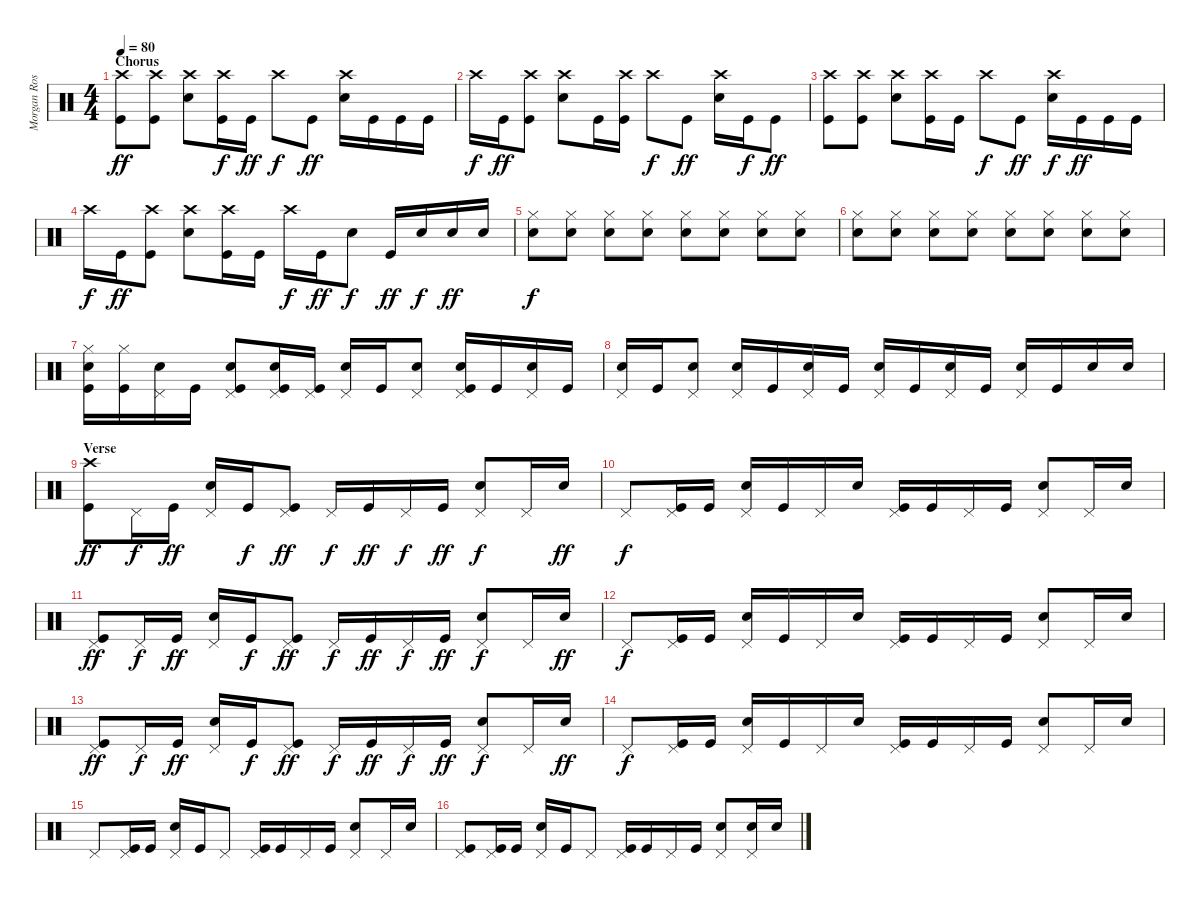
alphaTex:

\track ("Morgan Rose" "Morgan Ros") {instrument percussion}
\staff {score}
\articulation defaults
\ts (4 4)
\section ("" "Chorus")
\tempo 80
\clef neutral
\ks c
("Crash high (hit)" "Kick (hit)").8{dy ff} ("Crash high (hit)" "Kick (hit)").8 ("Crash high (hit)" "Snare (hit) 2").8 ("Crash high (hit)" "Kick (hit)").16{dy f} "Kick (hit)".16{dy ff} "Crash high (hit)".8{dy f} "Kick (hit)".8{dy ff} ("Crash high (hit)" "Snare (hit) 2").16 "Kick (hit)".16 "Kick (hit)".16 "Kick (hit)".16 |
"Crash high (hit)".16{dy f} "Kick (hit)".16{dy ff} ("Crash high (hit)" "Kick (hit)").8 ("Crash high (hit)" "Snare (hit) 2").8 "Kick (hit)".16 ("Crash high (hit)" "Kick (hit)").16 "Crash high (hit)".8{dy f} "Kick (hit)".8{dy ff} ("Crash high (hit)" "Snare (hit) 2").16 "Kick (hit)".16{dy f} "Kick (hit)".8{dy ff} |
("Crash high (hit)" "Kick (hit)").8 ("Crash high (hit)" "Kick (hit)").8 ("Crash high (hit)" "Snare (hit) 2").8 ("Crash high (hit)" "Kick (hit)").16 "Kick (hit)".16 "Crash high (hit)".8{dy f} "Kick (hit)".8{dy ff} ("Crash high (hit)" "Snare (hit) 2").16{dy f} "Kick (hit)".16{dy ff} "Kick (hit)".16 "Kick (hit)".16 |
"Crash high (hit)".16{dy f} "Kick (hit)".16{dy ff} ("Crash high (hit)" "Kick (hit)").8 ("Crash high (hit)" "Snare (hit) 2").8 ("Crash high (hit)" "Kick (hit)").16 "Kick (hit)".16 "Crash high (hit)".16{dy f} "Kick (hit)".16{dy ff} "Snare (hit) 2".8{dy f} "Kick (hit)".16{dy ff} "Snare (hit) 2".16{dy f} "Snare (hit) 2".16{dy ff} "Snare (hit) 2".16 |
("Hi-Hat (closed)" "Snare (hit) 2").8{dy f} ("Hi-Hat (closed)" "Snare (hit) 2").8 ("Hi-Hat (closed)" "Snare (hit) 2").8 ("Hi-Hat (closed)" "Snare (hit) 2").8 ("Hi-Hat (closed)" "Snare (hit) 2").8 ("Hi-Hat (closed)" "Snare (hit) 2").8 ("Hi-Hat (closed)" "Snare (hit) 2").8 ("Hi-Hat (closed)" "Snare (hit) 2").8 |
("Hi-Hat (closed)" "Snare (hit) 2").8 ("Hi-Hat (closed)" "Snare (hit) 2").8 ("Hi-Hat (closed)" "Snare (hit) 2").8 ("Hi-Hat (closed)" "Snare (hit) 2").8 ("Hi-Hat (closed)" "Snare (hit) 2").8 ("Hi-Hat (closed)" "Snare (hit) 2").8 ("Hi-Hat (closed)" "Snare (hit) 2").8 ("Hi-Hat (closed)" "Snare (hit) 2").8 |
("Hi-Hat (closed)" "Snare (hit) 2" "Kick (hit)").16 ("Hi-Hat (closed)" "Kick (hit)").16 ("Pedal Hi-Hat (hit)" "Snare (hit) 2").16 "Kick (hit)".16 ("Pedal Hi-Hat (hit)" "Snare (hit) 2" "Kick (hit)").8 ("Pedal Hi-Hat (hit)" "Snare (hit) 2" "Kick (hit)").16 ("Pedal Hi-Hat (hit)" "Kick (hit)").16 ("Pedal Hi-Hat (hit)" "Snare (hit) 2").16 "Kick (hit)".16 ("Pedal Hi-Hat (hit)" "Snare (hit) 2").8 ("Pedal Hi-Hat (hit)" "Snare (hit) 2" "Kick (hit)").16 "Kick (hit)".16 ("Pedal Hi-Hat (hit)" "Snare (hit) 2").16 "Kick (hit)".16 |
("Pedal Hi-Hat (hit)" "Snare (hit) 2").16 "Kick (hit)".16 ("Pedal Hi-Hat (hit)" "Snare (hit) 2").8 ("Pedal Hi-Hat (hit)" "Snare (hit) 2").16 "Kick (hit)".16 ("Pedal Hi-Hat (hit)" "Snare (hit) 2").16 "Kick (hit)".16 ("Pedal Hi-Hat (hit)" "Snare (hit) 2").16 "Kick (hit)".16 ("Pedal Hi-Hat (hit)" "Snare (hit) 2").16 "Kick (hit)".16 ("Pedal Hi-Hat (hit)" "Snare (hit) 2").16 "Kick (hit)".16 "Snare (hit) 2".16 "Snare (hit) 2".16 |
\section ("" "Verse")
("Crash high (hit)" "Kick (hit)").8{dy ff} "Pedal Hi-Hat (hit)".16{dy f} "Kick (hit)".16{dy ff} ("Pedal Hi-Hat (hit)" "Snare (hit) 2").16 "Kick (hit)".16{dy f} ("Pedal Hi-Hat (hit)" "Kick (hit)").8{dy ff} "Pedal Hi-Hat (hit)".16{dy f} "Kick (hit)".16{dy ff} "Pedal Hi-Hat (hit)".16{dy f} "Kick (hit)".16{dy ff} ("Pedal Hi-Hat (hit)" "Snare (hit) 2").8{dy f} "Pedal Hi-Hat (hit)".16 "Snare (hit) 2".16{dy ff} |
"Pedal Hi-Hat (hit)".8{dy f} ("Pedal Hi-Hat (hit)" "Kick (hit)").16 "Kick (hit)".16 ("Pedal Hi-Hat (hit)" "Snare (hit) 2").16 "Kick (hit)".16 "Pedal Hi-Hat (hit)".16 "Snare (hit) 2".16 ("Pedal Hi-Hat (hit)" "Kick (hit)").16 "Kick (hit)".16 "Pedal Hi-Hat (hit)".16 "Kick (hit)".16 ("Pedal Hi-Hat (hit)" "Snare (hit) 2").8 "Pedal Hi-Hat (hit)".16 "Snare (hit) 2".16 |
("Pedal Hi-Hat (hit)" "Kick (hit)").8{dy ff} "Pedal Hi-Hat (hit)".16{dy f} "Kick (hit)".16{dy ff} ("Pedal Hi-Hat (hit)" "Snare (hit) 2").16 "Kick (hit)".16{dy f} ("Pedal Hi-Hat (hit)" "Kick (hit)").8{dy ff} "Pedal Hi-Hat (hit)".16{dy f} "Kick (hit)".16{dy ff} "Pedal Hi-Hat (hit)".16{dy f} "Kick (hit)".16{dy ff} ("Pedal Hi-Hat (hit)" "Snare (hit) 2").8{dy f} "Pedal Hi-Hat (hit)".16 "Snare (hit) 2".16{dy ff} |
"Pedal Hi-Hat (hit)".8{dy f} ("Pedal Hi-Hat (hit)" "Kick (hit)").16 "Kick (hit)".16 ("Pedal Hi-Hat (hit)" "Snare (hit) 2").16 "Kick (hit)".16 "Pedal Hi-Hat (hit)".16 "Snare (hit) 2".16 ("Pedal Hi-Hat (hit)" "Kick (hit)").16 "Kick (hit)".16 "Pedal Hi-Hat (hit)".16 "Kick (hit)".16 ("Pedal Hi-Hat (hit)" "Snare (hit) 2").8 "Pedal Hi-Hat (hit)".16 "Snare (hit) 2".16 |
("Pedal Hi-Hat (hit)" "Kick (hit)").8{dy ff} "Pedal Hi-Hat (hit)".16{dy f} "Kick (hit)".16{dy ff} ("Pedal Hi-Hat (hit)" "Snare (hit) 2").16 "Kick (hit)".16{dy f} ("Pedal Hi-Hat (hit)" "Kick (hit)").8{dy ff} "Pedal Hi-Hat (hit)".16{dy f} "Kick (hit)".16{dy ff} "Pedal Hi-Hat (hit)".16{dy f} "Kick (hit)".16{dy ff} ("Pedal Hi-Hat (hit)" "Snare (hit) 2").8{dy f} "Pedal Hi-Hat (hit)".16 "Snare (hit) 2".16{dy ff} |
"Pedal Hi-Hat (hit)".8{dy f} ("Pedal Hi-Hat (hit)" "Kick (hit)").16 "Kick (hit)".16 ("Pedal Hi-Hat (hit)" "Snare (hit) 2").16 "Kick (hit)".16 "Pedal Hi-Hat (hit)".16 "Snare (hit) 2".16 ("Pedal Hi-Hat (hit)" "Kick (hit)").16 "Kick (hit)".16 "Pedal Hi-Hat (hit)".16 "Kick (hit)".16 ("Pedal Hi-Hat (hit)" "Snare (hit) 2").8 "Pedal Hi-Hat (hit)".16 "Snare (hit) 2".16 |
"Pedal Hi-Hat (hit)".8 ("Pedal Hi-Hat (hit)" "Kick (hit)").16 "Kick (hit)".16 ("Pedal Hi-Hat (hit)" "Snare (hit) 2").16 "Kick (hit)".16 "Pedal Hi-Hat (hit)".8 ("Pedal Hi-Hat (hit)" "Kick (hit)").16 "Kick (hit)".16 "Pedal Hi-Hat (hit)".16 "Kick (hit)".16 ("Pedal Hi-Hat (hit)" "Snare (hit) 2").8 "Pedal Hi-Hat (hit)".16 "Snare (hit) 2".16 |
("Pedal Hi-Hat (hit)" "Kick (hit)").8 ("Pedal Hi-Hat (hit)" "Kick (hit)").16 "Kick (hit)".16 ("Pedal Hi-Hat (hit)" "Snare (hit) 2").16 "Kick (hit)".16 "Pedal Hi-Hat (hit)".8 ("Pedal Hi-Hat (hit)" "Kick (hit)").16 "Kick (hit)".16 "Pedal Hi-Hat (hit)".16 "Kick (hit)".16 ("Pedal Hi-Hat (hit)" "Snare (hit) 2").8 ("Pedal Hi-Hat (hit)" "Snare (hit) 2").16 "Snare (hit) 2".16
